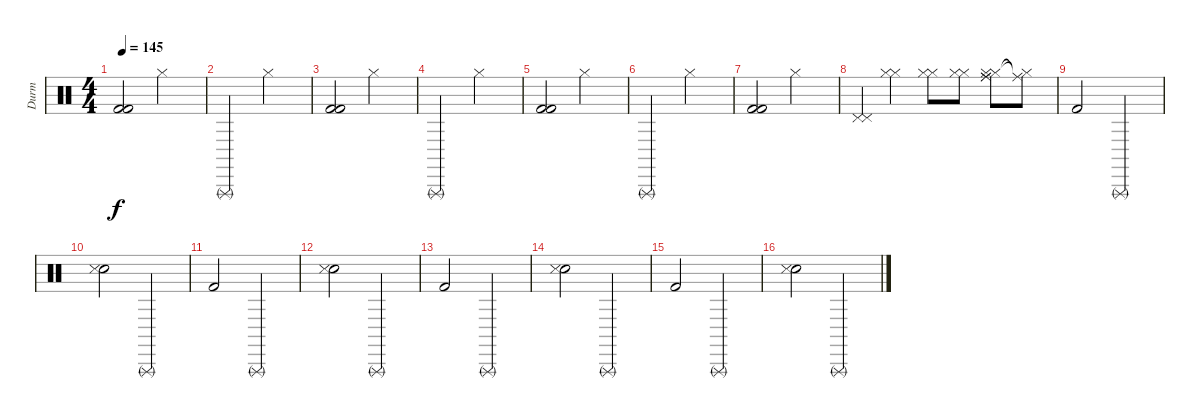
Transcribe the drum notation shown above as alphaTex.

\track ("Durm" "Durm") {instrument percussion}
\staff {score}
\articulation defaults
\ts (4 4)
\tempo 145
\clef neutral
\ks c
("Kick (hit) 2" "Kick (hit) 2").2{dy f} "Hi-Hat (closed)".2 |
"Triangle (rnute)".2 "Hi-Hat (closed)".2 |
("Kick (hit) 2" "Kick (hit) 2").2 "Hi-Hat (closed)".2 |
"Triangle (rnute)".2 "Hi-Hat (closed)".2 |
("Kick (hit) 2" "Kick (hit) 2").2 "Hi-Hat (closed)".2 |
"Triangle (rnute)".2 "Hi-Hat (closed)".2 |
("Kick (hit) 2" "Kick (hit) 2").2 "Hi-Hat (closed)".2 |
("Pedal Hi-Hat (hit)" "Pedal Hi-Hat (hit)").4 ("Hi-Hat (closed)" "Hi-Hat (closed)").4 ("Hi-Hat (closed)" "Hi-Hat (closed)").8 ("Hi-Hat (closed)" "Hi-Hat (closed)").8 ("Hi-Hat (closed)" "Hi-Hat (closed)" "Ride (middle)" "Ride (middle)").8 ("Hi-Hat (closed)"{t} "Ride (middle)"{t}).8 |
"Kick (hit) 2".2 "Triangle (rnute)".2 |
("Hand Clap (hit)" "Snare (side stick) 3").2 "Triangle (rnute)".2 |
"Kick (hit) 2".2 "Triangle (rnute)".2 |
("Hand Clap (hit)" "Snare (side stick) 3").2 "Triangle (rnute)".2 |
"Kick (hit) 2".2 "Triangle (rnute)".2 |
("Hand Clap (hit)" "Snare (side stick) 3").2 "Triangle (rnute)".2 |
"Kick (hit) 2".2 "Triangle (rnute)".2 |
("Hand Clap (hit)" "Snare (side stick) 3").2 "Triangle (rnute)".2
